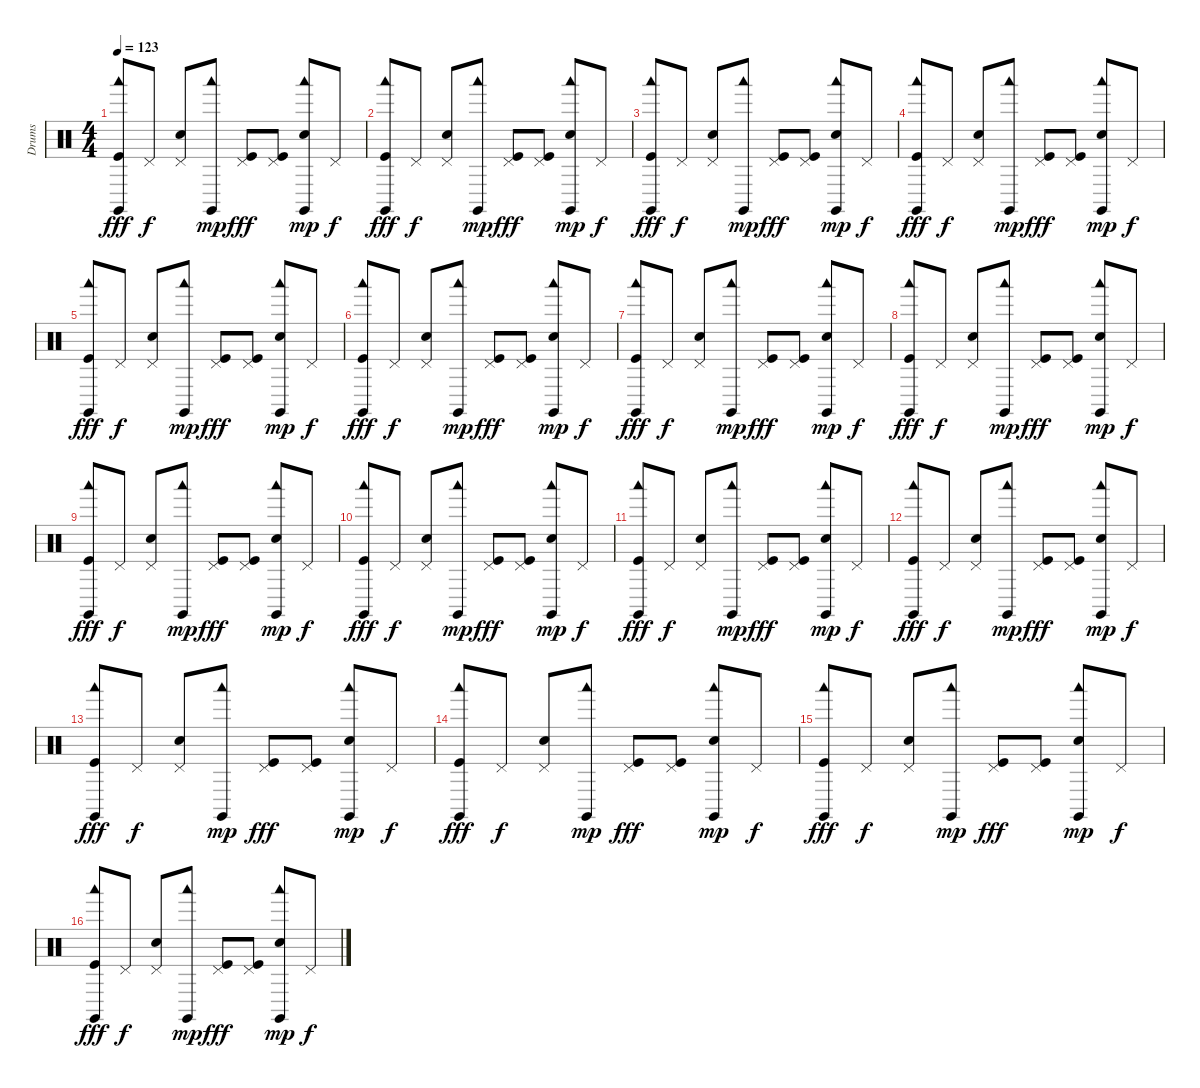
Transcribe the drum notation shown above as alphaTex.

\track ("Drums" "Drums") {instrument percussion}
\staff {score}
\articulation defaults
\ts (4 4)
\tempo 123
\clef neutral
\ks c
("Claves (hit)" "Woodblock low (hit)" "Kick (hit)").8{dy fff} "Pedal Hi-Hat (hit)".8{dy f} ("Pedal Hi-Hat (hit)" "Electric Snare (hit)").8 ("Claves (hit)" "Woodblock low (hit)").8{dy mp} ("Pedal Hi-Hat (hit)" "Kick (hit)").8{dy fff} ("Pedal Hi-Hat (hit)" "Kick (hit)").8 ("Claves (hit)" "Woodblock low (hit)" "Electric Snare (hit)").8{dy mp} "Pedal Hi-Hat (hit)".8{dy f} |
("Claves (hit)" "Woodblock low (hit)" "Kick (hit)").8{dy fff} "Pedal Hi-Hat (hit)".8{dy f} ("Pedal Hi-Hat (hit)" "Electric Snare (hit)").8 ("Claves (hit)" "Woodblock low (hit)").8{dy mp} ("Pedal Hi-Hat (hit)" "Kick (hit)").8{dy fff} ("Pedal Hi-Hat (hit)" "Kick (hit)").8 ("Claves (hit)" "Woodblock low (hit)" "Electric Snare (hit)").8{dy mp} "Pedal Hi-Hat (hit)".8{dy f} |
("Claves (hit)" "Woodblock low (hit)" "Kick (hit)").8{dy fff} "Pedal Hi-Hat (hit)".8{dy f} ("Pedal Hi-Hat (hit)" "Electric Snare (hit)").8 ("Claves (hit)" "Woodblock low (hit)").8{dy mp} ("Pedal Hi-Hat (hit)" "Kick (hit)").8{dy fff} ("Pedal Hi-Hat (hit)" "Kick (hit)").8 ("Claves (hit)" "Woodblock low (hit)" "Electric Snare (hit)").8{dy mp} "Pedal Hi-Hat (hit)".8{dy f} |
("Claves (hit)" "Woodblock low (hit)" "Kick (hit)").8{dy fff} "Pedal Hi-Hat (hit)".8{dy f} ("Pedal Hi-Hat (hit)" "Electric Snare (hit)").8 ("Claves (hit)" "Woodblock low (hit)").8{dy mp} ("Pedal Hi-Hat (hit)" "Kick (hit)").8{dy fff} ("Pedal Hi-Hat (hit)" "Kick (hit)").8 ("Claves (hit)" "Woodblock low (hit)" "Electric Snare (hit)").8{dy mp} "Pedal Hi-Hat (hit)".8{dy f} |
("Claves (hit)" "Woodblock low (hit)" "Kick (hit)").8{dy fff} "Pedal Hi-Hat (hit)".8{dy f} ("Pedal Hi-Hat (hit)" "Electric Snare (hit)").8 ("Claves (hit)" "Woodblock low (hit)").8{dy mp} ("Pedal Hi-Hat (hit)" "Kick (hit)").8{dy fff} ("Pedal Hi-Hat (hit)" "Kick (hit)").8 ("Claves (hit)" "Woodblock low (hit)" "Electric Snare (hit)").8{dy mp} "Pedal Hi-Hat (hit)".8{dy f} |
("Claves (hit)" "Woodblock low (hit)" "Kick (hit)").8{dy fff} "Pedal Hi-Hat (hit)".8{dy f} ("Pedal Hi-Hat (hit)" "Electric Snare (hit)").8 ("Claves (hit)" "Woodblock low (hit)").8{dy mp} ("Pedal Hi-Hat (hit)" "Kick (hit)").8{dy fff} ("Pedal Hi-Hat (hit)" "Kick (hit)").8 ("Claves (hit)" "Woodblock low (hit)" "Electric Snare (hit)").8{dy mp} "Pedal Hi-Hat (hit)".8{dy f} |
("Claves (hit)" "Woodblock low (hit)" "Kick (hit)").8{dy fff} "Pedal Hi-Hat (hit)".8{dy f} ("Pedal Hi-Hat (hit)" "Electric Snare (hit)").8 ("Claves (hit)" "Woodblock low (hit)").8{dy mp} ("Pedal Hi-Hat (hit)" "Kick (hit)").8{dy fff} ("Pedal Hi-Hat (hit)" "Kick (hit)").8 ("Claves (hit)" "Woodblock low (hit)" "Electric Snare (hit)").8{dy mp} "Pedal Hi-Hat (hit)".8{dy f} |
("Claves (hit)" "Woodblock low (hit)" "Kick (hit)").8{dy fff} "Pedal Hi-Hat (hit)".8{dy f} ("Pedal Hi-Hat (hit)" "Electric Snare (hit)").8 ("Claves (hit)" "Woodblock low (hit)").8{dy mp} ("Pedal Hi-Hat (hit)" "Kick (hit)").8{dy fff} ("Pedal Hi-Hat (hit)" "Kick (hit)").8 ("Claves (hit)" "Woodblock low (hit)" "Electric Snare (hit)").8{dy mp} "Pedal Hi-Hat (hit)".8{dy f} |
("Claves (hit)" "Woodblock low (hit)" "Kick (hit)").8{dy fff} "Pedal Hi-Hat (hit)".8{dy f} ("Pedal Hi-Hat (hit)" "Electric Snare (hit)").8 ("Claves (hit)" "Woodblock low (hit)").8{dy mp} ("Pedal Hi-Hat (hit)" "Kick (hit)").8{dy fff} ("Pedal Hi-Hat (hit)" "Kick (hit)").8 ("Claves (hit)" "Woodblock low (hit)" "Electric Snare (hit)").8{dy mp} "Pedal Hi-Hat (hit)".8{dy f} |
("Claves (hit)" "Woodblock low (hit)" "Kick (hit)").8{dy fff} "Pedal Hi-Hat (hit)".8{dy f} ("Pedal Hi-Hat (hit)" "Electric Snare (hit)").8 ("Claves (hit)" "Woodblock low (hit)").8{dy mp} ("Pedal Hi-Hat (hit)" "Kick (hit)").8{dy fff} ("Pedal Hi-Hat (hit)" "Kick (hit)").8 ("Claves (hit)" "Woodblock low (hit)" "Electric Snare (hit)").8{dy mp} "Pedal Hi-Hat (hit)".8{dy f} |
("Claves (hit)" "Woodblock low (hit)" "Kick (hit)").8{dy fff} "Pedal Hi-Hat (hit)".8{dy f} ("Pedal Hi-Hat (hit)" "Electric Snare (hit)").8 ("Claves (hit)" "Woodblock low (hit)").8{dy mp} ("Pedal Hi-Hat (hit)" "Kick (hit)").8{dy fff} ("Pedal Hi-Hat (hit)" "Kick (hit)").8 ("Claves (hit)" "Woodblock low (hit)" "Electric Snare (hit)").8{dy mp} "Pedal Hi-Hat (hit)".8{dy f} |
("Claves (hit)" "Woodblock low (hit)" "Kick (hit)").8{dy fff} "Pedal Hi-Hat (hit)".8{dy f} ("Pedal Hi-Hat (hit)" "Electric Snare (hit)").8 ("Claves (hit)" "Woodblock low (hit)").8{dy mp} ("Pedal Hi-Hat (hit)" "Kick (hit)").8{dy fff} ("Pedal Hi-Hat (hit)" "Kick (hit)").8 ("Claves (hit)" "Woodblock low (hit)" "Electric Snare (hit)").8{dy mp} "Pedal Hi-Hat (hit)".8{dy f} |
("Claves (hit)" "Woodblock low (hit)" "Kick (hit)").8{dy fff} "Pedal Hi-Hat (hit)".8{dy f} ("Pedal Hi-Hat (hit)" "Electric Snare (hit)").8 ("Claves (hit)" "Woodblock low (hit)").8{dy mp} ("Pedal Hi-Hat (hit)" "Kick (hit)").8{dy fff} ("Pedal Hi-Hat (hit)" "Kick (hit)").8 ("Claves (hit)" "Woodblock low (hit)" "Electric Snare (hit)").8{dy mp} "Pedal Hi-Hat (hit)".8{dy f} |
("Claves (hit)" "Woodblock low (hit)" "Kick (hit)").8{dy fff volume 10} "Pedal Hi-Hat (hit)".8{dy f} ("Pedal Hi-Hat (hit)" "Electric Snare (hit)").8 ("Claves (hit)" "Woodblock low (hit)").8{dy mp} ("Pedal Hi-Hat (hit)" "Kick (hit)").8{dy fff} ("Pedal Hi-Hat (hit)" "Kick (hit)").8 ("Claves (hit)" "Woodblock low (hit)" "Electric Snare (hit)").8{dy mp} "Pedal Hi-Hat (hit)".8{dy f} |
("Claves (hit)" "Woodblock low (hit)" "Kick (hit)").8{dy fff} "Pedal Hi-Hat (hit)".8{dy f} ("Pedal Hi-Hat (hit)" "Electric Snare (hit)").8 ("Claves (hit)" "Woodblock low (hit)").8{dy mp} ("Pedal Hi-Hat (hit)" "Kick (hit)").8{dy fff} ("Pedal Hi-Hat (hit)" "Kick (hit)").8 ("Claves (hit)" "Woodblock low (hit)" "Electric Snare (hit)").8{dy mp} "Pedal Hi-Hat (hit)".8{dy f} |
("Claves (hit)" "Woodblock low (hit)" "Kick (hit)").8{dy fff volume 6} "Pedal Hi-Hat (hit)".8{dy f} ("Pedal Hi-Hat (hit)" "Electric Snare (hit)").8 ("Claves (hit)" "Woodblock low (hit)").8{dy mp} ("Pedal Hi-Hat (hit)" "Kick (hit)").8{dy fff} ("Pedal Hi-Hat (hit)" "Kick (hit)").8 ("Claves (hit)" "Woodblock low (hit)" "Electric Snare (hit)").8{dy mp} "Pedal Hi-Hat (hit)".8{dy f}
